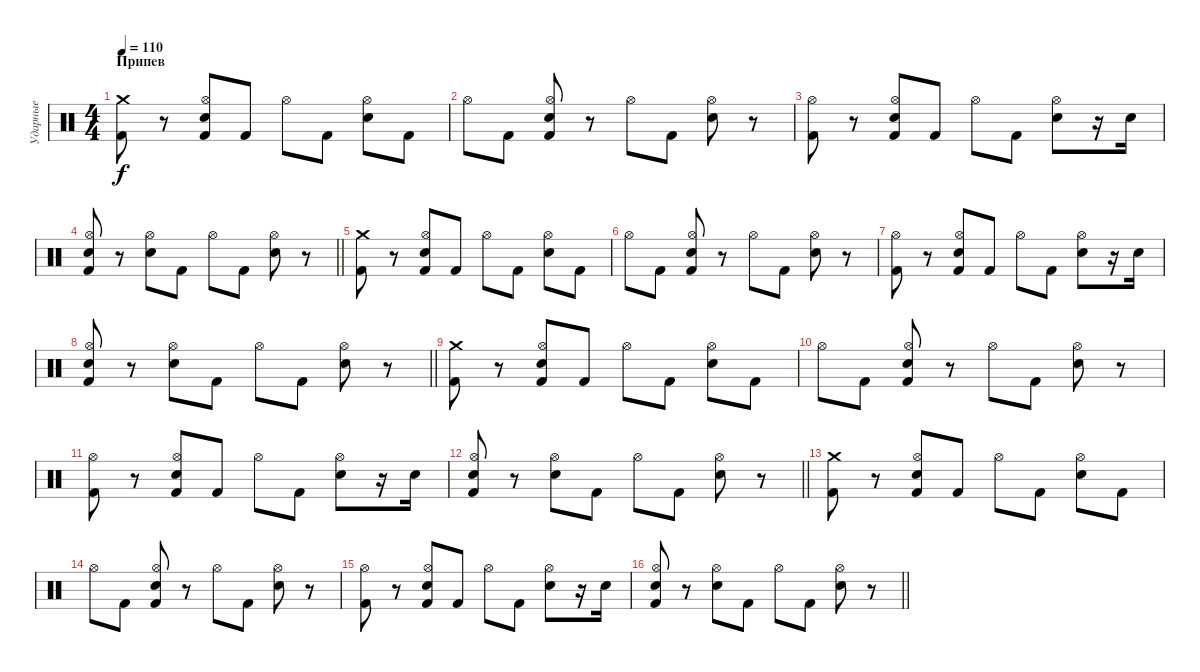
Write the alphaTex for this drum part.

\track ("Ударные" "Ударные") {instrument percussion}
\staff {score}
\articulation defaults
\ts (4 4)
\section ("" "Припев")
\tempo 110
\clef neutral
\ks c
("Crash medium (hit)" "Kick (hit) 2").8{dy f} r.8 ("Hi-Hat (open)" "Electric Snare (hit)" "Kick (hit) 2").8 "Kick (hit) 2".8 "Hi-Hat (open)".8 "Kick (hit) 2".8 ("Hi-Hat (open)" "Electric Snare (hit)").8 "Kick (hit) 2".8 |
"Hi-Hat (open)".8 "Kick (hit) 2".8 ("Hi-Hat (open)" "Electric Snare (hit)" "Kick (hit) 2").8 r.8 "Hi-Hat (open)".8 "Kick (hit) 2".8 ("Hi-Hat (open)" "Electric Snare (hit)").8 r.8 |
("Hi-Hat (open)" "Kick (hit) 2").8 r.8 ("Hi-Hat (open)" "Electric Snare (hit)" "Kick (hit) 2").8 "Kick (hit) 2".8 "Hi-Hat (open)".8 "Kick (hit) 2".8 ("Hi-Hat (open)" "Electric Snare (hit)").8 r.16 "Electric Snare (hit)".16 |
\barLineRight lightlight
("Hi-Hat (open)" "Electric Snare (hit)" "Kick (hit) 2").8 r.8 ("Hi-Hat (open)" "Electric Snare (hit)").8 "Kick (hit) 2".8 "Hi-Hat (open)".8 "Kick (hit) 2".8 ("Hi-Hat (open)" "Electric Snare (hit)").8 r.8 |
("Crash medium (hit)" "Kick (hit) 2").8 r.8 ("Hi-Hat (open)" "Electric Snare (hit)" "Kick (hit) 2").8 "Kick (hit) 2".8 "Hi-Hat (open)".8 "Kick (hit) 2".8 ("Hi-Hat (open)" "Electric Snare (hit)").8 "Kick (hit) 2".8 |
"Hi-Hat (open)".8 "Kick (hit) 2".8 ("Hi-Hat (open)" "Electric Snare (hit)" "Kick (hit) 2").8 r.8 "Hi-Hat (open)".8 "Kick (hit) 2".8 ("Hi-Hat (open)" "Electric Snare (hit)").8 r.8 |
("Hi-Hat (open)" "Kick (hit) 2").8 r.8 ("Hi-Hat (open)" "Electric Snare (hit)" "Kick (hit) 2").8 "Kick (hit) 2".8 "Hi-Hat (open)".8 "Kick (hit) 2".8 ("Hi-Hat (open)" "Electric Snare (hit)").8 r.16 "Electric Snare (hit)".16 |
\barLineRight lightlight
("Hi-Hat (open)" "Electric Snare (hit)" "Kick (hit) 2").8 r.8 ("Hi-Hat (open)" "Electric Snare (hit)").8 "Kick (hit) 2".8 "Hi-Hat (open)".8 "Kick (hit) 2".8 ("Hi-Hat (open)" "Electric Snare (hit)").8 r.8 |
("Crash medium (hit)" "Kick (hit) 2").8 r.8 ("Hi-Hat (open)" "Electric Snare (hit)" "Kick (hit) 2").8 "Kick (hit) 2".8 "Hi-Hat (open)".8 "Kick (hit) 2".8 ("Hi-Hat (open)" "Electric Snare (hit)").8 "Kick (hit) 2".8 |
"Hi-Hat (open)".8 "Kick (hit) 2".8 ("Hi-Hat (open)" "Electric Snare (hit)" "Kick (hit) 2").8 r.8 "Hi-Hat (open)".8 "Kick (hit) 2".8 ("Hi-Hat (open)" "Electric Snare (hit)").8 r.8 |
("Hi-Hat (open)" "Kick (hit) 2").8 r.8 ("Hi-Hat (open)" "Electric Snare (hit)" "Kick (hit) 2").8 "Kick (hit) 2".8 "Hi-Hat (open)".8 "Kick (hit) 2".8 ("Hi-Hat (open)" "Electric Snare (hit)").8 r.16 "Electric Snare (hit)".16 |
\barLineRight lightlight
("Hi-Hat (open)" "Electric Snare (hit)" "Kick (hit) 2").8 r.8 ("Hi-Hat (open)" "Electric Snare (hit)").8 "Kick (hit) 2".8 "Hi-Hat (open)".8 "Kick (hit) 2".8 ("Hi-Hat (open)" "Electric Snare (hit)").8 r.8 |
("Crash medium (hit)" "Kick (hit) 2").8 r.8 ("Hi-Hat (open)" "Electric Snare (hit)" "Kick (hit) 2").8 "Kick (hit) 2".8 "Hi-Hat (open)".8 "Kick (hit) 2".8 ("Hi-Hat (open)" "Electric Snare (hit)").8 "Kick (hit) 2".8 |
"Hi-Hat (open)".8 "Kick (hit) 2".8 ("Hi-Hat (open)" "Electric Snare (hit)" "Kick (hit) 2").8 r.8 "Hi-Hat (open)".8 "Kick (hit) 2".8 ("Hi-Hat (open)" "Electric Snare (hit)").8 r.8 |
("Hi-Hat (open)" "Kick (hit) 2").8 r.8 ("Hi-Hat (open)" "Electric Snare (hit)" "Kick (hit) 2").8 "Kick (hit) 2".8 "Hi-Hat (open)".8 "Kick (hit) 2".8 ("Hi-Hat (open)" "Electric Snare (hit)").8 r.16 "Electric Snare (hit)".16 |
\barLineRight lightlight
("Hi-Hat (open)" "Electric Snare (hit)" "Kick (hit) 2").8 r.8 ("Hi-Hat (open)" "Electric Snare (hit)").8 "Kick (hit) 2".8 "Hi-Hat (open)".8 "Kick (hit) 2".8 ("Hi-Hat (open)" "Electric Snare (hit)").8 r.8
